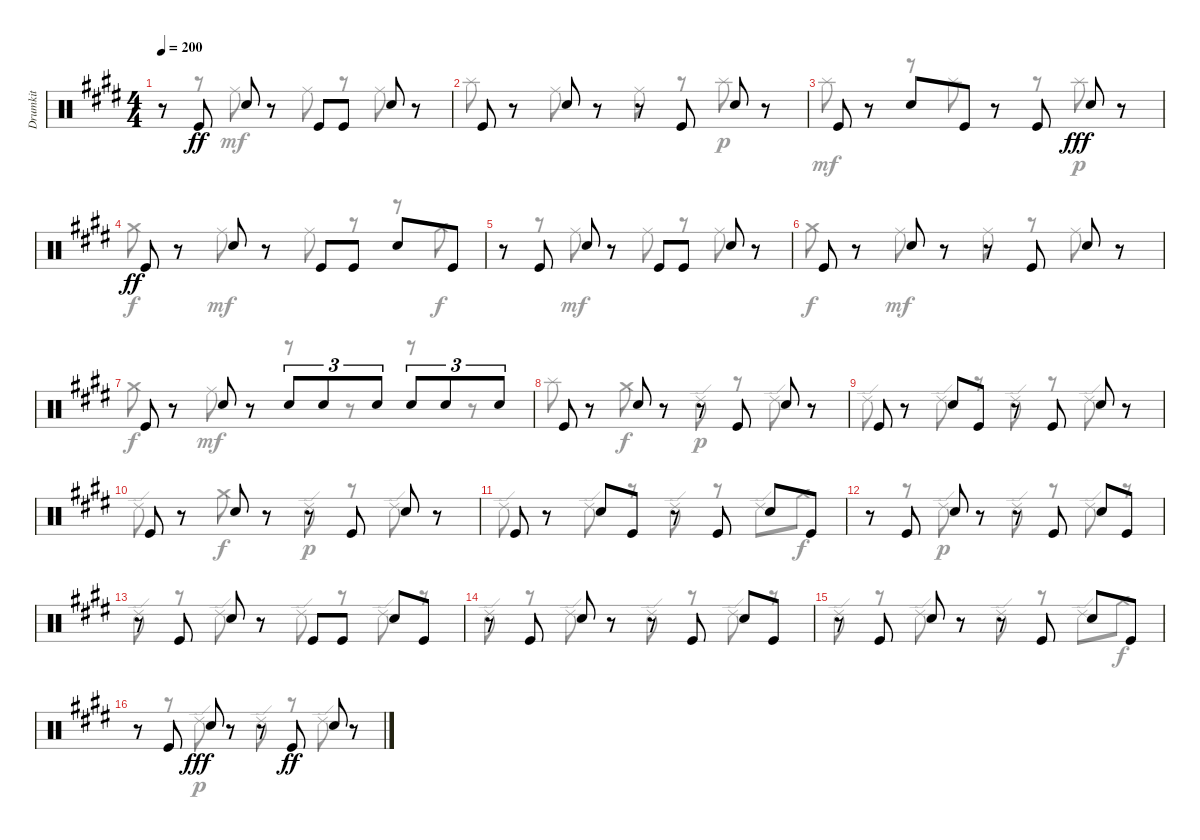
\track ("Drumkit" "Drumkit") {instrument percussion}
\staff {score}
\articulation defaults
\voice
\ts (4 4)
\tempo 200
\clef neutral
\ks c#minor
r.8{dy ff} "Kick (hit)".8 "Snare (hit) 2".8 r.8 "Kick (hit)".8 "Kick (hit)".8 "Snare (hit) 2".8 r.8 |
"Kick (hit)".8 r.8 "Snare (hit) 2".8 r.8 r.8 "Kick (hit)".8 "Snare (hit) 2".8 r.8 |
"Kick (hit)".8 r.8 "Snare (hit) 2".8 "Kick (hit)".8 r.8 "Kick (hit)".8 "Snare (hit) 2".8{dy fff} r.8 |
"Kick (hit)".8{dy ff} r.8 "Snare (hit) 2".8 r.8 "Kick (hit)".8 "Kick (hit)".8 "Snare (hit) 2".8 "Kick (hit)".8 |
r.8 "Kick (hit)".8 "Snare (hit) 2".8 r.8 "Kick (hit)".8 "Kick (hit)".8 "Snare (hit) 2".8 r.8 |
"Kick (hit)".8 r.8 "Snare (hit) 2".8 r.8 r.8 "Kick (hit)".8 "Snare (hit) 2".8 r.8 |
"Kick (hit)".8 r.8 "Snare (hit) 2".8 r.8 "Snare (hit) 2".8{tu (3 2)} "Snare (hit) 2".8{tu (3 2)} "Snare (hit) 2".8{tu (3 2)} "Snare (hit) 2".8{tu (3 2)} "Snare (hit) 2".8{tu (3 2)} "Snare (hit) 2".8{tu (3 2)} |
"Kick (hit)".8 r.8 "Snare (hit) 2".8 r.8 r.8 "Kick (hit)".8 "Snare (hit) 2".8 r.8 |
"Kick (hit)".8 r.8 "Snare (hit) 2".8 "Kick (hit)".8 r.8 "Kick (hit)".8 "Snare (hit) 2".8 r.8 |
"Kick (hit)".8 r.8 "Snare (hit) 2".8 r.8 r.8 "Kick (hit)".8 "Snare (hit) 2".8 r.8 |
"Kick (hit)".8 r.8 "Snare (hit) 2".8 "Kick (hit)".8 r.8 "Kick (hit)".8 "Snare (hit) 2".8 "Kick (hit)".8 |
r.8 "Kick (hit)".8 "Snare (hit) 2".8 r.8 r.8 "Kick (hit)".8 "Snare (hit) 2".8 "Kick (hit)".8 |
r.8 "Kick (hit)".8 "Snare (hit) 2".8 r.8 "Kick (hit)".8 "Kick (hit)".8 "Snare (hit) 2".8 "Kick (hit)".8 |
r.8 "Kick (hit)".8 "Snare (hit) 2".8 r.8 r.8 "Kick (hit)".8 "Snare (hit) 2".8 "Kick (hit)".8 |
r.8 "Kick (hit)".8 "Snare (hit) 2".8 r.8 r.8 "Kick (hit)".8 "Snare (hit) 2".8 "Kick (hit)".8 |
r.8 "Kick (hit)".8 "Snare (hit) 2".8{dy fff} r.8 r.8 "Kick (hit)".8{dy ff} "Snare (hit) 2".8 r.8
\voice
\clef neutral
\ottava regular
\simile none
\ks c#minor
r.8{dy mf} r.8 "Ride (middle)".8 r.8 "Ride (middle)".8 r.8 "Ride (middle)".8 r.8 |
"Splash (hit)".8 r.8 "Ride (middle)".8 r.8 "Ride (middle)".8 r.8 "Splash (hit)".8{dy p} r.8 |
"Splash (hit)".8{dy mf} r.8 r.8 "Splash (hit)".8 r.8 r.8 "Splash (hit)".8{dy p} r.8 |
"Crash medium (hit)".8{dy f} r.8 "Ride (middle)".8{dy mf} r.8 "Ride (middle)".8 r.8 r.8 "Crash medium (hit)".8{dy f} |
r.8 r.8 "Ride (middle)".8{dy mf} r.8 "Ride (middle)".8 r.8 "Ride (middle)".8 r.8 |
"Crash medium (hit)".8{dy f} r.8 "Ride (middle)".8{dy mf} r.8 "Ride (middle)".8 r.8 "Ride (middle)".8 r.8 |
"Crash medium (hit)".8{dy f} r.8 "Ride (middle)".8{dy mf} r.8 r.8 r.8 r.8 r.8 |
"Splash (hit)".8 r.8 "Crash medium (hit)".8{dy f} r.8 "Ride (edge) 2".8{dy p} r.8 "Ride (edge) 2".8 r.8 |
"Ride (edge) 2".8 r.8 "Ride (edge) 2".8 r.8 "Ride (edge) 2".8 r.8 "Ride (edge) 2".8 r.8 |
"Ride (edge) 2".8 r.8 "Crash medium (hit)".8{dy f} r.8 "Ride (edge) 2".8{dy p} r.8 "Ride (edge) 2".8 r.8 |
"Ride (edge) 2".8 r.8 "Ride (edge) 2".8 r.8 "Ride (edge) 2".8 r.8 "Ride (edge) 2".8 "Crash medium (hit)".8{dy f} |
r.8 r.8 "Ride (edge) 2".8{dy p} r.8 "Ride (edge) 2".8 r.8 "Ride (edge) 2".8 r.8 |
"Ride (edge) 2".8 r.8 "Ride (edge) 2".8 r.8 "Ride (edge) 2".8 r.8 "Ride (edge) 2".8 r.8 |
"Ride (edge) 2".8 r.8 "Ride (edge) 2".8 r.8 "Ride (edge) 2".8 r.8 "Ride (edge) 2".8 r.8 |
"Ride (edge) 2".8 r.8 "Ride (edge) 2".8 r.8 "Ride (edge) 2".8 r.8 "Ride (edge) 2".8 "Crash medium (hit)".8{dy f} |
r.8 r.8 "Ride (edge) 2".8{dy p} r.8 "Ride (edge) 2".8 r.8 "Ride (edge) 2".8 r.8
